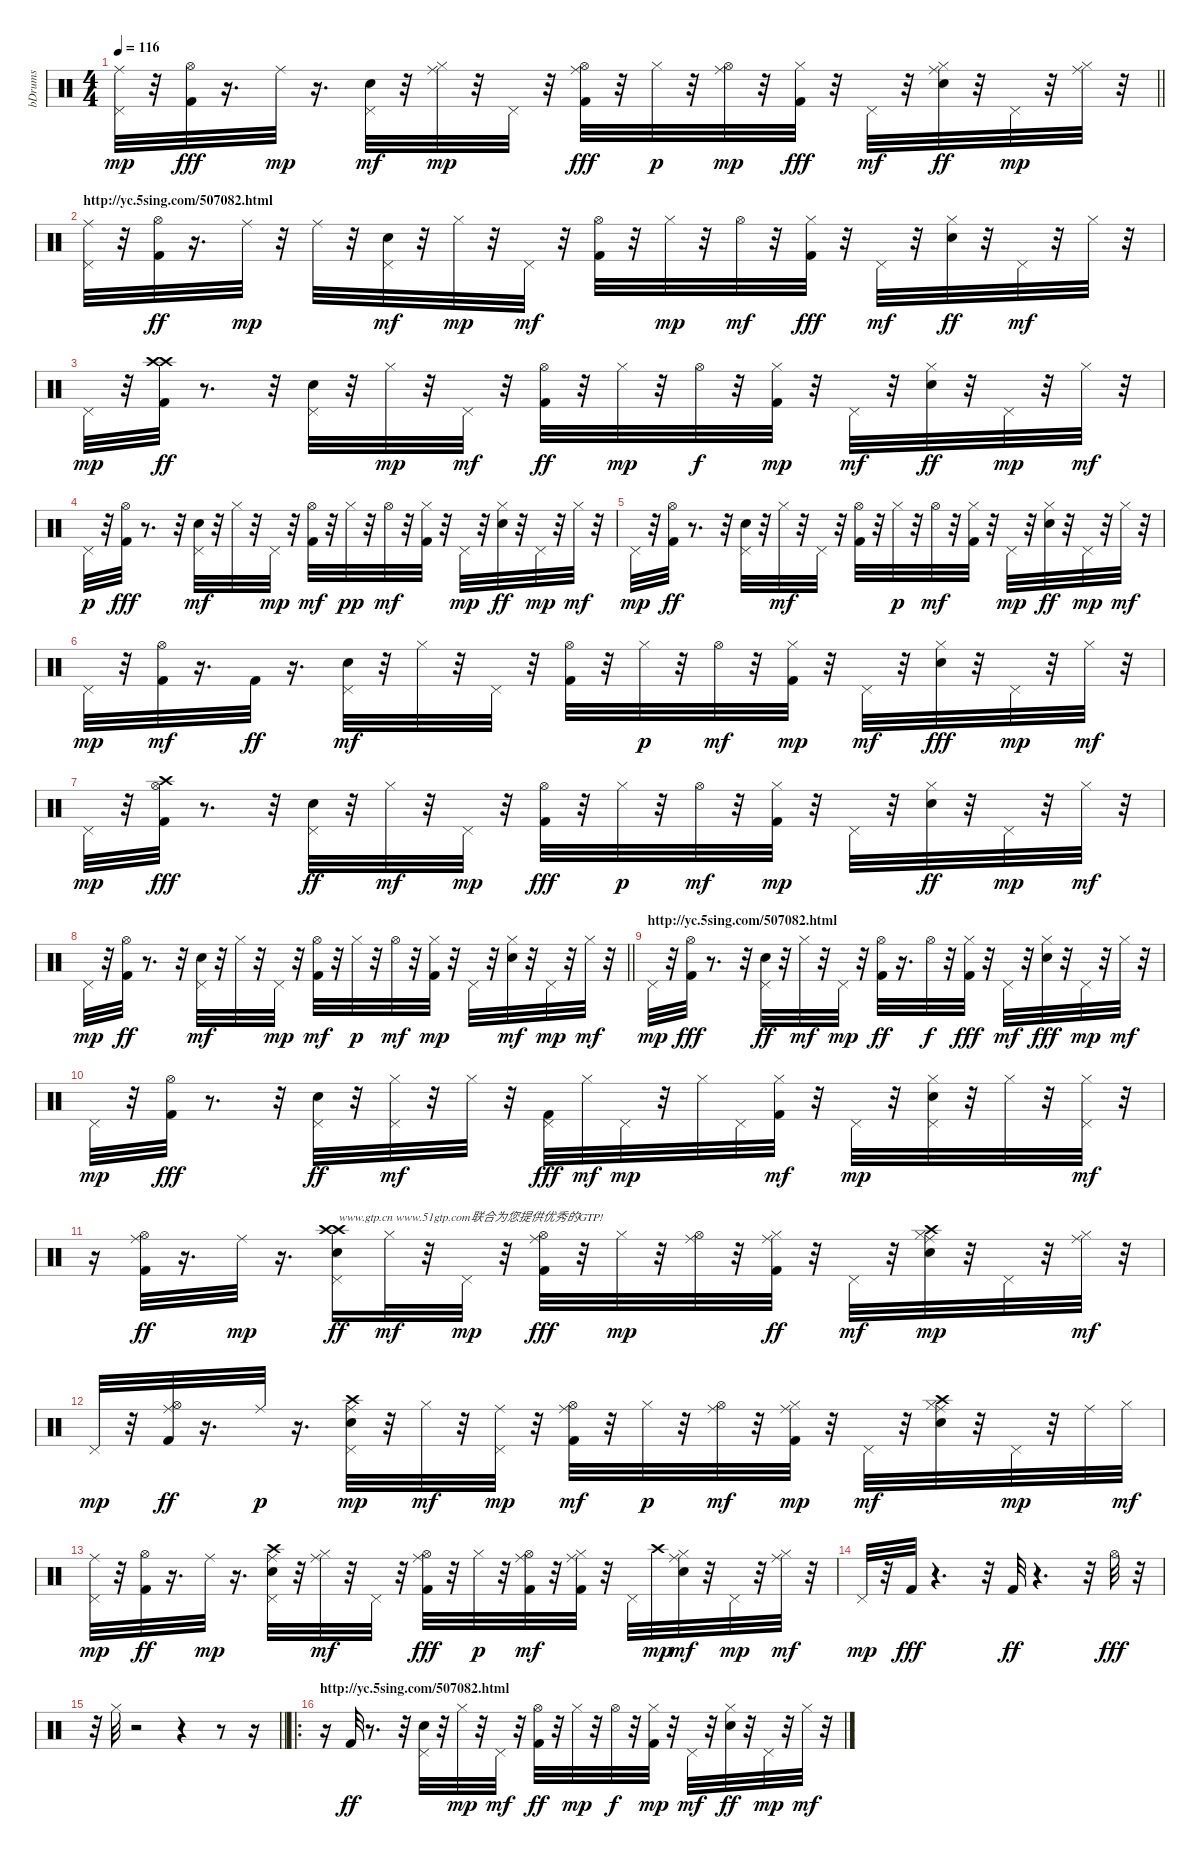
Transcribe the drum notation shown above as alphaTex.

\track ("bDrums" "bDrums") {instrument percussion}
\staff {score}
\articulation defaults
\ts (4 4)
\tempo 116
\clef neutral
\barLineRight lightlight
\ks c
("Pedal Hi-Hat (hit)" "Ride (middle)").32{dy mp} r.32 ("Hi-Hat (open)" "Kick (hit) 2").32{dy fff} r.16{d} "Ride (middle)".32{dy mp} r.16{d} ("Snare (hit) 2" "Pedal Hi-Hat (hit)").32{dy mf} r.32 ("Hi-Hat (closed)" "Ride (middle)").32{dy mp} r.32 "Pedal Hi-Hat (hit)".32 r.32 ("Hi-Hat (open)" "Ride (middle)" "Kick (hit) 2").32{dy fff} r.32 "Hi-Hat (closed)".32{dy p} r.32 ("Hi-Hat (open)" "Ride (middle)").32{dy mp} r.32 ("Hi-Hat (closed)" "Kick (hit) 2").32{dy fff} r.32 "Pedal Hi-Hat (hit)".32{dy mf} r.32 ("Hi-Hat (closed)" "Ride (middle)" "Snare (hit) 2").32{dy ff} r.32 "Pedal Hi-Hat (hit)".32{dy mp} r.32 ("Hi-Hat (closed)" "Ride (middle)").32 r.32 |
\section ("" "http://yc.5sing.com/507082.html")
("Pedal Hi-Hat (hit)" "Ride (middle)").32 r.32 ("Hi-Hat (open)" "Kick (hit) 2").32{dy ff} r.16{d} "Ride (middle)".32{dy mp} r.32 "Ride (middle)".32 r.32 ("Snare (hit) 2" "Pedal Hi-Hat (hit)").32{dy mf} r.32 "Hi-Hat (closed)".32{dy mp} r.32 "Pedal Hi-Hat (hit)".32{dy mf} r.32 ("Kick (hit) 2" "Hi-Hat (open)").32 r.32 "Hi-Hat (closed)".32{dy mp} r.32 "Hi-Hat (open)".32{dy mf} r.32 ("Hi-Hat (closed)" "Kick (hit) 2").32{dy fff} r.32 "Pedal Hi-Hat (hit)".32{dy mf} r.32 ("Hi-Hat (closed)" "Snare (hit) 2").32{dy ff} r.32 "Pedal Hi-Hat (hit)".32{dy mf} r.32 "Hi-Hat (closed)".32 r.32 |
"Pedal Hi-Hat (hit)".32{dy mp} r.32 ("Crash high (hit)" "Crash high (hit)" "Kick (hit) 2").32{dy ff} r.8{d} r.32 ("Pedal Hi-Hat (hit)" "Snare (hit) 2").32 r.32 "Hi-Hat (closed)".32{dy mp} r.32 "Pedal Hi-Hat (hit)".32{dy mf} r.32 ("Hi-Hat (open)" "Kick (hit) 2").32{dy ff} r.32 "Hi-Hat (closed)".32{dy mp} r.32 "Hi-Hat (open)".32{dy f} r.32 ("Kick (hit) 2" "Hi-Hat (closed)").32{dy mp} r.32 "Pedal Hi-Hat (hit)".32{dy mf} r.32 ("Hi-Hat (closed)" "Snare (hit) 2").32{dy ff} r.32 "Pedal Hi-Hat (hit)".32{dy mp} r.32 "Hi-Hat (closed)".32{dy mf} r.32 |
"Pedal Hi-Hat (hit)".32{dy p} r.32 ("Hi-Hat (open)" "Kick (hit) 2").32{dy fff} r.8{d} r.32 ("Snare (hit) 2" "Pedal Hi-Hat (hit)").32{dy mf} r.32 "Hi-Hat (closed)".32 r.32 "Pedal Hi-Hat (hit)".32{dy mp} r.32 ("Kick (hit) 2" "Hi-Hat (open)").32{dy mf} r.32 "Hi-Hat (closed)".32{dy pp} r.32 "Hi-Hat (open)".32{dy mf} r.32 ("Kick (hit) 2" "Hi-Hat (closed)").32 r.32 "Pedal Hi-Hat (hit)".32{dy mp} r.32 ("Hi-Hat (closed)" "Snare (hit) 2").32{dy ff} r.32 "Pedal Hi-Hat (hit)".32{dy mp} r.32 "Hi-Hat (closed)".32{dy mf} r.32 |
"Pedal Hi-Hat (hit)".32{dy mp} r.32 ("Hi-Hat (open)" "Kick (hit) 2").32{dy ff} r.8{d} r.32 ("Pedal Hi-Hat (hit)" "Snare (hit) 2").32 r.32 "Hi-Hat (closed)".32{dy mf} r.32 "Pedal Hi-Hat (hit)".32 r.32 ("Kick (hit) 2" "Hi-Hat (open)").32 r.32 "Hi-Hat (closed)".32{dy p} r.32 "Hi-Hat (open)".32{dy mf} r.32 ("Kick (hit) 2" "Hi-Hat (closed)").32 r.32 "Pedal Hi-Hat (hit)".32{dy mp} r.32 ("Hi-Hat (closed)" "Snare (hit) 2").32{dy ff} r.32 "Pedal Hi-Hat (hit)".32{dy mp} r.32 "Hi-Hat (closed)".32{dy mf} r.32 |
"Pedal Hi-Hat (hit)".32{dy mp} r.32 ("Kick (hit) 2" "Hi-Hat (open)").32{dy mf} r.16{d} "Kick (hit) 2".32{dy ff} r.16{d} ("Snare (hit) 2" "Pedal Hi-Hat (hit)").32{dy mf} r.32 "Hi-Hat (closed)".32 r.32 "Pedal Hi-Hat (hit)".32 r.32 ("Kick (hit) 2" "Hi-Hat (open)").32 r.32 "Hi-Hat (closed)".32{dy p} r.32 "Hi-Hat (open)".32{dy mf} r.32 ("Kick (hit) 2" "Hi-Hat (closed)").32{dy mp} r.32 "Pedal Hi-Hat (hit)".32{dy mf} r.32 ("Hi-Hat (closed)" "Snare (hit) 2").32{dy fff} r.32 "Pedal Hi-Hat (hit)".32{dy mp} r.32 "Hi-Hat (closed)".32{dy mf} r.32 |
"Pedal Hi-Hat (hit)".32{dy mp} r.32 ("Crash high (hit)" "Hi-Hat (open)" "Kick (hit) 2").32{dy fff} r.8{d} r.32 ("Pedal Hi-Hat (hit)" "Snare (hit) 2").32{dy ff} r.32 "Hi-Hat (closed)".32{dy mf} r.32 "Pedal Hi-Hat (hit)".32{dy mp} r.32 ("Hi-Hat (open)" "Kick (hit) 2").32{dy fff} r.32 "Hi-Hat (closed)".32{dy p} r.32 "Hi-Hat (open)".32{dy mf} r.32 ("Kick (hit) 2" "Hi-Hat (closed)").32{dy mp} r.32 "Pedal Hi-Hat (hit)".32 r.32 ("Hi-Hat (closed)" "Snare (hit) 2").32{dy ff} r.32 "Pedal Hi-Hat (hit)".32{dy mp} r.32 "Hi-Hat (closed)".32{dy mf} r.32 |
\barLineRight lightlight "Pedal Hi-Hat (hit)".32{dy mp}
r.32 ("Hi-Hat (open)" "Kick (hit) 2").32{dy ff} r.8{d} r.32 ("Snare (hit) 2" "Pedal Hi-Hat (hit)").32{dy mf} r.32 "Hi-Hat (closed)".32 r.32 "Pedal Hi-Hat (hit)".32{dy mp} r.32 ("Kick (hit) 2" "Hi-Hat (open)").32{dy mf} r.32 "Hi-Hat (closed)".32{dy p} r.32 "Hi-Hat (open)".32{dy mf} r.32 ("Kick (hit) 2" "Hi-Hat (closed)").32{dy mp} r.32 "Pedal Hi-Hat (hit)".32 r.32 ("Snare (hit) 2" "Hi-Hat (closed)").32{dy mf} r.32 "Pedal Hi-Hat (hit)".32{dy mp} r.32 "Hi-Hat (closed)".32{dy mf} r.32 |
\section ("" "http://yc.5sing.com/507082.html")
"Pedal Hi-Hat (hit)".32{dy mp} r.32 ("Hi-Hat (open)" "Kick (hit) 2").32{dy fff} r.8{d} r.32 ("Pedal Hi-Hat (hit)" "Snare (hit) 2").32{dy ff} r.32 "Hi-Hat (closed)".32{dy mf} r.32 "Pedal Hi-Hat (hit)".32{dy mp} r.32 ("Hi-Hat (open)" "Kick (hit) 2").32{dy ff} r.16{d} "Hi-Hat (open)".32{dy f} r.32 ("Hi-Hat (closed)" "Kick (hit) 2").32{dy fff} r.32 "Pedal Hi-Hat (hit)".32{dy mf} r.32 ("Hi-Hat (closed)" "Snare (hit) 2").32{dy fff} r.32 "Pedal Hi-Hat (hit)".32{dy mp} r.32 "Hi-Hat (closed)".32{dy mf} r.32 |
"Pedal Hi-Hat (hit)".32{dy mp} r.32 ("Hi-Hat (open)" "Kick (hit) 2").32{dy fff} r.8{d} r.32 ("Pedal Hi-Hat (hit)" "Snare (hit) 2").32{dy ff} r.32 ("Hi-Hat (closed)" "Pedal Hi-Hat (hit)").32{dy mf} r.32 "Hi-Hat (closed)".32 r.32 ("Pedal Hi-Hat (hit)" "Kick (hit) 2").32{dy fff} "Hi-Hat (closed)".32{dy mf} "Pedal Hi-Hat (hit)".32{dy mp} r.32 "Hi-Hat (closed)".32 "Pedal Hi-Hat (hit)".32 ("Kick (hit) 2" "Hi-Hat (closed)").32{dy mf} r.32 "Pedal Hi-Hat (hit)".32{dy mp} r.32 ("Hi-Hat (closed)" "Snare (hit) 2" "Pedal Hi-Hat (hit)").32 r.32 "Hi-Hat (closed)".32 r.32 ("Pedal Hi-Hat (hit)" "Hi-Hat (closed)").32{dy mf} r.32 |
r.16 ("Hi-Hat (open)" "Ride (middle)" "Kick (hit) 2").32{dy ff} r.16{d} "Ride (middle)".32{dy mp} r.16{d} ("Pedal Hi-Hat (hit)" "Crash high (hit)" "Crash high (hit)" "Snare (hit) 2").16{txt "www.gtp.cn www.51gtp.com联合为您提供优秀的GTP!" dy ff} "Hi-Hat (closed)".32{dy mf} r.32 "Pedal Hi-Hat (hit)".32{dy mp} r.32 ("Ride (middle)" "Hi-Hat (open)" "Kick (hit) 2").32{dy fff} r.32 "Hi-Hat (closed)".32{dy mp} r.32 ("Ride (middle)" "Hi-Hat (open)").32 r.32 ("Ride (middle)" "Hi-Hat (closed)" "Kick (hit) 2").32{dy ff} r.32 "Pedal Hi-Hat (hit)".32{dy mf} r.32 ("Ride (middle)" "Hi-Hat (closed)" "Snare (hit) 2" "Crash high (hit)").32{dy mp} r.32 "Pedal Hi-Hat (hit)".32 r.32 ("Ride (middle)" "Hi-Hat (closed)").32{dy mf} r.32 |
"Pedal Hi-Hat (hit)".32{dy mp} r.32 ("Ride (middle)" "Hi-Hat (open)" "Kick (hit) 2").32{dy ff} r.16{d} "Ride (middle)".32{dy p} r.16{d} ("Ride (middle)" "Snare (hit) 2" "Pedal Hi-Hat (hit)" "Crash high (hit)").32{dy mp} r.32 "Hi-Hat (closed)".32{dy mf} r.32 ("Ride (middle)" "Pedal Hi-Hat (hit)").32{dy mp} r.32 ("Ride (middle)" "Kick (hit) 2" "Hi-Hat (open)").32{dy mf} r.32 "Hi-Hat (closed)".32{dy p} r.32 ("Ride (middle)" "Hi-Hat (open)").32{dy mf} r.32 ("Kick (hit) 2" "Ride (middle)" "Hi-Hat (closed)").32{dy mp} r.32 "Pedal Hi-Hat (hit)".32{dy mf} r.32 ("Crash high (hit)" "Ride (middle)" "Snare (hit) 2" "Hi-Hat (closed)").32 r.32 "Pedal Hi-Hat (hit)".32{dy mp} r.32 "Ride (middle)".32 "Hi-Hat (closed)".32{dy mf} |
("Ride (middle)" "Pedal Hi-Hat (hit)").32{dy mp} r.32 ("Hi-Hat (open)" "Kick (hit) 2").32{dy ff} r.16{d} "Ride (middle)".32{dy mp} r.16{d} ("Ride (middle)" "Snare (hit) 2" "Pedal Hi-Hat (hit)" "Crash high (hit)").32 r.32 ("Ride (middle)" "Hi-Hat (closed)").32{dy mf} r.32 "Pedal Hi-Hat (hit)".32 r.32 ("Ride (middle)" "Hi-Hat (open)" "Kick (hit) 2").32{dy fff} r.32 "Hi-Hat (closed)".32{dy p} r.32 ("Ride (middle)" "Kick (hit) 2" "Hi-Hat (open)").32{dy mf} r.32 ("Ride (middle)" "Kick (hit) 2" "Hi-Hat (closed)").32 r.32 "Pedal Hi-Hat (hit)".32 "Crash high (hit)".32{dy mp} ("Ride (middle)" "Snare (hit) 2" "Hi-Hat (closed)").32{dy mf} r.32 "Pedal Hi-Hat (hit)".32{dy mp} r.32 ("Ride (middle)" "Hi-Hat (closed)").32{dy mf} r.32 |
"Pedal Hi-Hat (hit)".32{dy mp} r.32 "Kick (hit) 2".32{dy fff} r.4{d} r.32 "Kick (hit) 2".32{dy ff} r.4{d} r.32 "Hi-Hat (open)".32{dy fff} r.32 |
\barLineRight lightlight
r.32 "Hi-Hat (closed)".32 r.2 r.4 r.8 r.16 |
\ro
\section ("" "http://yc.5sing.com/507082.html")
r.16 "Kick (hit) 2".32{dy ff} r.8{d} r.32 ("Pedal Hi-Hat (hit)" "Snare (hit) 2").32 r.32 "Hi-Hat (closed)".32{dy mp} r.32 "Pedal Hi-Hat (hit)".32{dy mf} r.32 ("Hi-Hat (open)" "Kick (hit) 2").32{dy ff} r.32 "Hi-Hat (closed)".32{dy mp} r.32 "Hi-Hat (open)".32{dy f} r.32 ("Kick (hit) 2" "Hi-Hat (closed)").32{dy mp} r.32 "Pedal Hi-Hat (hit)".32{dy mf} r.32 ("Hi-Hat (closed)" "Snare (hit) 2").32{dy ff} r.32 "Pedal Hi-Hat (hit)".32{dy mp} r.32 "Hi-Hat (closed)".32{dy mf} r.32
